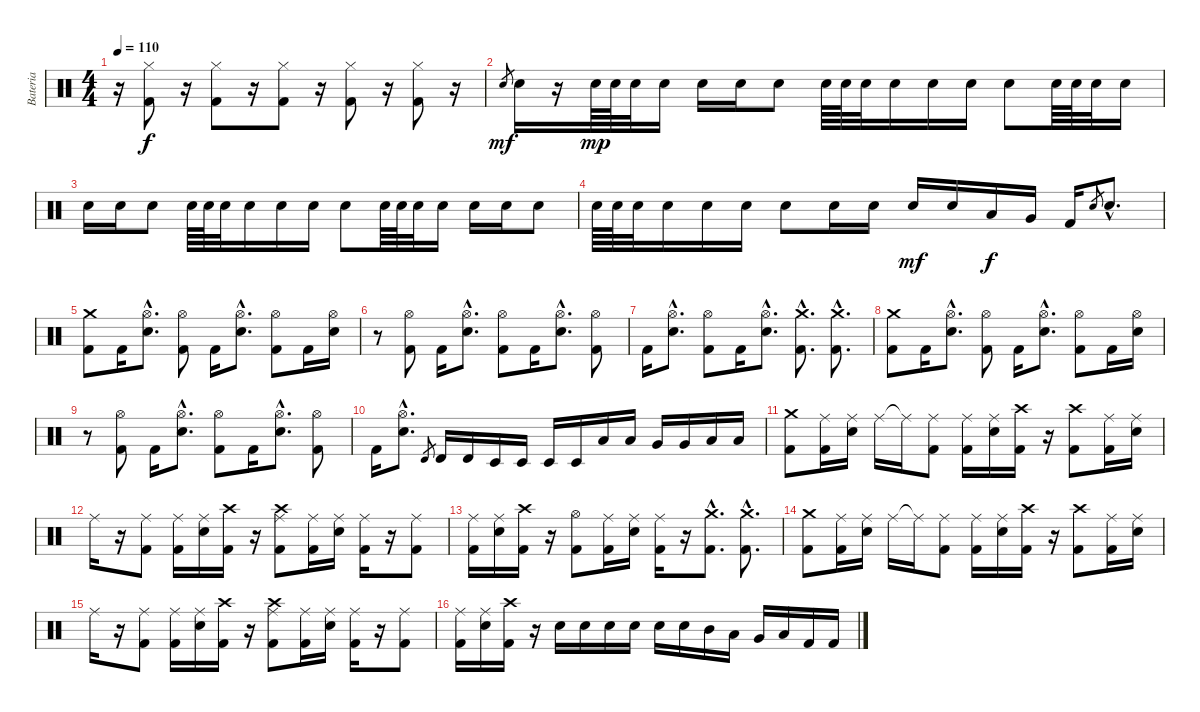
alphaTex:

\track ("Bateria" "Bateria") {instrument percussion}
\staff {score}
\articulation defaults
\ts (4 4)
\tempo 110
\clef neutral
\ks c
r.16{dy f} ("Kick (hit) 2" "Hi-Hat (closed)").8 r.16 ("Kick (hit) 2" "Hi-Hat (closed)").8 r.16 ("Kick (hit) 2" "Hi-Hat (closed)").8 r.16 ("Kick (hit) 2" "Hi-Hat (closed)").8 r.16 ("Kick (hit) 2" "Hi-Hat (closed)").8 r.16 |
"Snare (hit) 2".8{gr dy mf} "Snare (hit) 2".16 r.16 "Snare (hit) 2".64{dy mp} "Snare (hit) 2".64 "Snare (hit) 2".32 "Snare (hit) 2".16 "Snare (hit) 2".16 "Snare (hit) 2".16 "Snare (hit) 2".8 "Snare (hit) 2".64 "Snare (hit) 2".64 "Snare (hit) 2".32 "Snare (hit) 2".16 "Snare (hit) 2".16 "Snare (hit) 2".16 "Snare (hit) 2".8 "Snare (hit) 2".64 "Snare (hit) 2".64 "Snare (hit) 2".32 "Snare (hit) 2".16 |
"Snare (hit) 2".16 "Snare (hit) 2".16 "Snare (hit) 2".8 "Snare (hit) 2".64 "Snare (hit) 2".64 "Snare (hit) 2".32 "Snare (hit) 2".16 "Snare (hit) 2".16 "Snare (hit) 2".16 "Snare (hit) 2".8 "Snare (hit) 2".64 "Snare (hit) 2".64 "Snare (hit) 2".32 "Snare (hit) 2".16 "Snare (hit) 2".16 "Snare (hit) 2".16 "Snare (hit) 2".8 |
"Snare (hit) 2".64 "Snare (hit) 2".64 "Snare (hit) 2".32 "Snare (hit) 2".16 "Snare (hit) 2".16 "Snare (hit) 2".16 "Snare (hit) 2".8 "Snare (hit) 2".16 "Snare (hit) 2".16 "Snare (hit) 2".16{dy mf} "Snare (hit) 2".16 "Low Tom (hit)".16{dy f} "Very Low Tom (hit)".16 "Kick (hit) 2".16 "Snare (hit) 2".8{gr} "Snare (hit) 2"{hac}.8{d} |
\section ("" "")
("Crash medium (hit)" "Kick (hit) 2").8 "Kick (hit) 2".16 ("Hi-Hat (open)"{hac} "Snare (hit) 2"{hac}).8{d} ("Hi-Hat (open)" "Kick (hit) 2").8 "Kick (hit) 2".16 ("Hi-Hat (open)"{hac} "Snare (hit) 2"{hac}).8{d} ("Hi-Hat (open)" "Kick (hit) 2").8 "Kick (hit) 2".16 ("Hi-Hat (open)" "Snare (hit) 2").16 |
r.8 ("Hi-Hat (open)" "Kick (hit) 2").8 "Kick (hit) 2".16 ("Hi-Hat (open)"{hac} "Snare (hit) 2"{hac}).8{d} ("Hi-Hat (open)" "Kick (hit) 2").8 "Kick (hit) 2".16 ("Hi-Hat (open)"{hac} "Snare (hit) 2"{hac}).8{d} ("Hi-Hat (open)" "Kick (hit) 2").8 |
"Kick (hit) 2".16 ("Hi-Hat (open)"{hac} "Snare (hit) 2"{hac}).8{d} ("Hi-Hat (open)" "Kick (hit) 2").8 "Kick (hit) 2".16 ("Hi-Hat (open)"{hac} "Snare (hit) 2"{hac}).8{d} ("Crash medium (hit)"{hac} "Kick (hit) 2"{hac}).8{d} ("Crash medium (hit)"{hac} "Kick (hit) 2"{hac}).8{d} |
("Crash medium (hit)" "Kick (hit) 2").8 "Kick (hit) 2".16 ("Hi-Hat (open)"{hac} "Snare (hit) 2"{hac}).8{d} ("Hi-Hat (open)" "Kick (hit) 2").8 "Kick (hit) 2".16 ("Hi-Hat (open)"{hac} "Snare (hit) 2"{hac}).8{d} ("Hi-Hat (open)" "Kick (hit) 2").8 "Kick (hit) 2".16 ("Hi-Hat (open)" "Snare (hit) 2").16 |
r.8 ("Hi-Hat (open)" "Kick (hit) 2").8 "Kick (hit) 2".16 ("Hi-Hat (open)"{hac} "Snare (hit) 2"{hac}).8{d} ("Hi-Hat (open)" "Kick (hit) 2").8 "Kick (hit) 2".16 ("Hi-Hat (open)"{hac} "Snare (hit) 2"{hac}).8{d} ("Hi-Hat (open)" "Kick (hit) 2").8 |
"Kick (hit) 2".16 ("Hi-Hat (open)"{hac} "Snare (hit) 2"{hac}).8{d} "Timbale high (hit)".8{gr} "Timbale high (hit)".16 "Timbale high (hit)".16 "Timbale low (hit)".16 "Timbale low (hit)".16 "Timbale low (hit)".16 "Timbale low (hit)".16 "Low Tom (hit)".16 "Low Tom (hit)".16 "Very Low Tom (hit)".16 "Very Low Tom (hit)".16 "Low Floor Tom (hit)".16 "Low Floor Tom (hit)".16 |
("Crash medium (hit)" "Kick (hit) 2").8 ("Ride (middle)" "Kick (hit) 2").16 ("Ride (middle)" "Snare (hit) 2").16 "Ride (middle)".16 "Ride (middle)"{t}.16 ("Ride (middle)" "Kick (hit) 2").8 ("Ride (middle)" "Kick (hit) 2").16 ("Ride (middle)" "Snare (hit) 2").16 ("Crash high (hit)" "Kick (hit) 2").16 r.16 ("Crash high (hit)" "Kick (hit) 2").8 ("Ride (middle)" "Kick (hit) 2").16 ("Ride (middle)" "Snare (hit) 2").16 |
"Ride (middle)".16 r.16 ("Ride (middle)" "Kick (hit) 2").8 ("Ride (middle)" "Kick (hit) 2").16 ("Ride (middle)" "Snare (hit) 2").16 ("Crash high (hit)" "Kick (hit) 2").16 r.16 ("Crash high (hit)" "Kick (hit) 2" "Ride (middle)").8 ("Kick (hit) 2" "Ride (middle)").16 ("Ride (middle)" "Snare (hit) 2").16 ("Kick (hit) 2" "Ride (middle)").16 r.16 ("Ride (middle)" "Kick (hit) 2").8 |
("Ride (middle)" "Kick (hit) 2").16 ("Ride (middle)" "Snare (hit) 2").16 ("Crash high (hit)" "Kick (hit) 2").16 r.16 ("Hi-Hat (open)" "Kick (hit) 2").8 ("Ride (middle)" "Kick (hit) 2").16 ("Ride (middle)" "Snare (hit) 2").16 ("Ride (middle)" "Kick (hit) 2").16 r.16 ("Crash medium (hit)"{hac} "Kick (hit) 2"{hac}).8{d} ("Crash medium (hit)"{hac} "Kick (hit) 2"{hac}).8{d} |
("Crash medium (hit)" "Kick (hit) 2").8 ("Ride (middle)" "Kick (hit) 2").16 ("Ride (middle)" "Snare (hit) 2").16 "Ride (middle)".16 "Ride (middle)"{t}.16 ("Ride (middle)" "Kick (hit) 2").8 ("Ride (middle)" "Kick (hit) 2").16 ("Ride (middle)" "Snare (hit) 2").16 ("Crash high (hit)" "Kick (hit) 2").16 r.16 ("Crash high (hit)" "Kick (hit) 2").8 ("Ride (middle)" "Kick (hit) 2").16 ("Ride (middle)" "Snare (hit) 2").16 |
"Ride (middle)".16 r.16 ("Ride (middle)" "Kick (hit) 2").8 ("Ride (middle)" "Kick (hit) 2").16 ("Ride (middle)" "Snare (hit) 2").16 ("Crash high (hit)" "Kick (hit) 2").16 r.16 ("Crash high (hit)" "Kick (hit) 2" "Ride (middle)").8 ("Kick (hit) 2" "Ride (middle)").16 ("Ride (middle)" "Snare (hit) 2").16 ("Kick (hit) 2" "Ride (middle)").16 r.16 ("Ride (middle)" "Kick (hit) 2").8 |
("Ride (middle)" "Kick (hit) 2").16 ("Ride (middle)" "Snare (hit) 2").16 ("Crash high (hit)" "Kick (hit) 2").16 r.16 "Snare (hit) 2".16 "Snare (hit) 2".16 "Snare (hit) 2".16 "Snare (hit) 2".16 "Snare (hit) 2".16 "Snare (hit) 2".16 "Mid Tom (hit)".16 "Low Tom (hit)".16 "Very Low Tom (hit)".16 "Low Floor Tom (hit)".16 "Kick (hit) 2".16 "Kick (hit) 2".16
